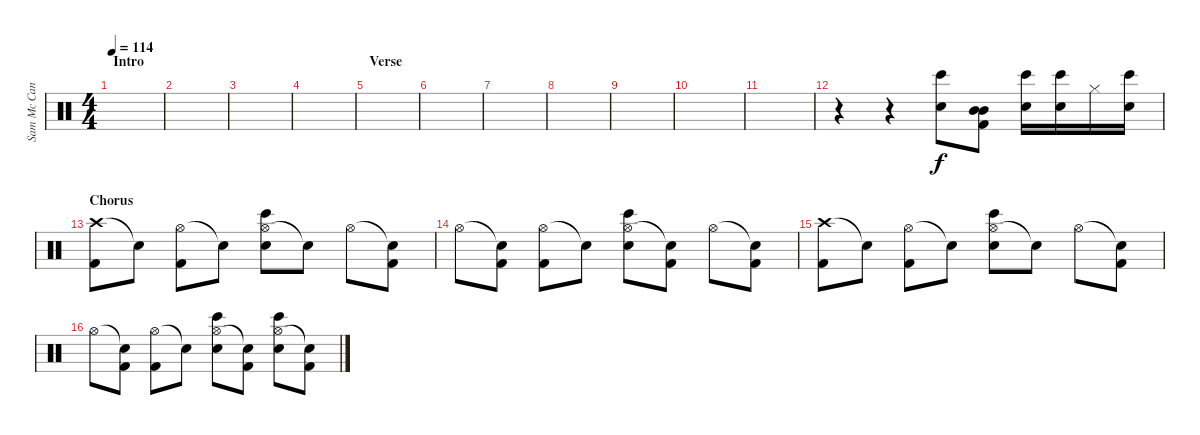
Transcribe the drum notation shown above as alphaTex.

\track ("Sam Mc Candless (Drums)" "Sam Mc Can") {instrument percussion}
\staff {score}
\articulation defaults
\ts (4 4)
\section ("" "Intro")
\tempo 114
\clef neutral
\ks c
|
|
|
|
\section ("" "Verse")
|
|
|
|
|
|
|
r.4 r.4 ("Electric Snare (hit)" "Bongo High (hit)").8 ("Mid Tom (hit)" "Mid Tom (hit)" "Kick (hit) 2").8 ("Electric Snare (hit)" "Bongo High (hit)").16 ("Electric Snare (hit)" "Bongo High (hit)").16 "Hi-Hat (closed)".16 ("Electric Snare (hit)" "Bongo High (hit)").16 |
\section ("" "Chorus")
("Crash high (hit)" "Kick (hit) 2").8 "Snare (hit)"{t}.8 ("Hi-Hat (open)" "Kick (hit) 2").8 "Snare (hit)"{t}.8 ("Hi-Hat (open)" "Electric Snare (hit)" "Bongo High (hit)").8 "Snare (hit)"{t}.8 "Hi-Hat (open)".8 ("Snare (hit)"{t} "Kick (hit) 2").8 |
"Hi-Hat (open)".8 ("Snare (hit)"{t} "Kick (hit) 2").8 ("Hi-Hat (open)" "Kick (hit) 2").8 "Snare (hit)"{t}.8 ("Hi-Hat (open)" "Electric Snare (hit)" "Bongo High (hit)").8 ("Snare (hit)"{t} "Kick (hit) 2").8 "Hi-Hat (open)".8 ("Snare (hit)"{t} "Kick (hit) 2").8 |
("Crash high (hit)" "Kick (hit) 2").8 "Snare (hit)"{t}.8 ("Hi-Hat (open)" "Kick (hit) 2").8 "Snare (hit)"{t}.8 ("Hi-Hat (open)" "Electric Snare (hit)" "Bongo High (hit)").8 "Snare (hit)"{t}.8 "Hi-Hat (open)".8 ("Snare (hit)"{t} "Kick (hit) 2").8 |
"Hi-Hat (open)".8 ("Snare (hit)"{t} "Kick (hit) 2").8 ("Hi-Hat (open)" "Kick (hit) 2").8 "Snare (hit)"{t}.8 ("Hi-Hat (open)" "Electric Snare (hit)" "Bongo High (hit)").8 ("Snare (hit)"{t} "Kick (hit) 2").8 ("Hi-Hat (open)" "Electric Snare (hit)" "Bongo High (hit)").8 ("Snare (hit)"{t} "Kick (hit) 2").8
